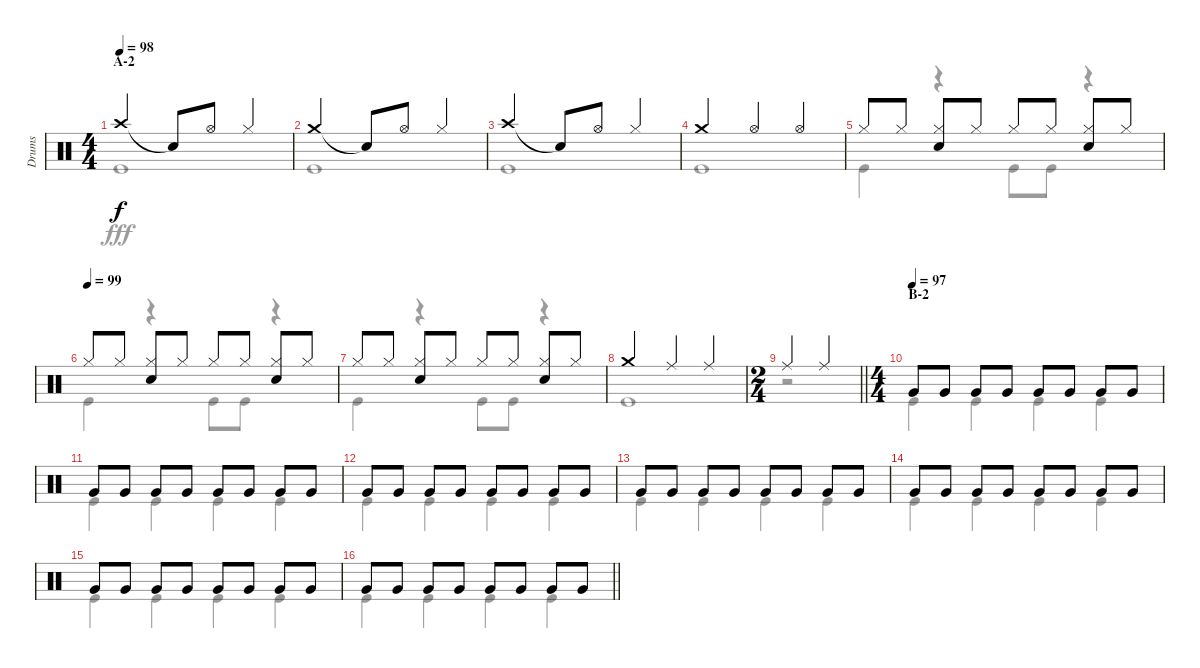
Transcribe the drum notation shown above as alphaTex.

\track ("Drums" "Drums") {instrument percussion}
\staff {score}
\articulation defaults
\voice
\ts (4 4)
\section ("" "A-2")
\tempo 98
\clef neutral
\ks c "Crash high (hit)".2{dy f} "Snare (hit)"{t}.8 "Hi-Hat (open)".8 "Hi-Hat (closed)".4
|
"Crash medium (hit)".2 "Snare (hit)"{t}.8 "Hi-Hat (open)".8 "Hi-Hat (closed)".4 |
"Crash high (hit)".2 "Snare (hit)"{t}.8 "Hi-Hat (open)".8 "Hi-Hat (closed)".4 |
"Crash medium (hit)".2 "Hi-Hat (open)".4 "Hi-Hat (open)".4 |
"Hi-Hat (closed)".8 "Hi-Hat (closed)".8 ("Hi-Hat (closed)" "Snare (hit) 2").8 "Hi-Hat (closed)".8 "Hi-Hat (closed)".8 "Hi-Hat (closed)".8 ("Hi-Hat (closed)" "Snare (hit) 2").8 "Hi-Hat (closed)".8 |
\tempo (99)
"Hi-Hat (closed)".8 "Hi-Hat (closed)".8 ("Hi-Hat (closed)" "Snare (hit) 2").8 "Hi-Hat (closed)".8 "Hi-Hat (closed)".8 "Hi-Hat (closed)".8 ("Hi-Hat (closed)" "Snare (hit) 2").8 "Hi-Hat (closed)".8 |
"Hi-Hat (closed)".8 "Hi-Hat (closed)".8 ("Hi-Hat (closed)" "Snare (hit) 2").8 "Hi-Hat (closed)".8 "Hi-Hat (closed)".8 "Hi-Hat (closed)".8 ("Hi-Hat (closed)" "Snare (hit) 2").8 "Hi-Hat (closed)".8 |
"Crash medium (hit)".2 "Ride (middle)".4 "Ride (middle)".4 |
\ts (2 4)
\barLineRight lightlight "Ride (middle)".4 "Ride (middle)".4
|
\ts (4 4)
\section ("" "B-2")
\tempo (97)
"Very Low Tom (hit)".8 "Very Low Tom (hit)".8 "Very Low Tom (hit)".8 "Very Low Tom (hit)".8 "Very Low Tom (hit)".8 "Very Low Tom (hit)".8 "Very Low Tom (hit)".8 "Very Low Tom (hit)".8 |
"Very Low Tom (hit)".8 "Very Low Tom (hit)".8 "Very Low Tom (hit)".8 "Very Low Tom (hit)".8 "Very Low Tom (hit)".8 "Very Low Tom (hit)".8 "Very Low Tom (hit)".8 "Very Low Tom (hit)".8 |
"Very Low Tom (hit)".8 "Very Low Tom (hit)".8 "Very Low Tom (hit)".8 "Very Low Tom (hit)".8 "Very Low Tom (hit)".8 "Very Low Tom (hit)".8 "Very Low Tom (hit)".8 "Very Low Tom (hit)".8 |
"Very Low Tom (hit)".8 "Very Low Tom (hit)".8 "Very Low Tom (hit)".8 "Very Low Tom (hit)".8 "Very Low Tom (hit)".8 "Very Low Tom (hit)".8 "Very Low Tom (hit)".8 "Very Low Tom (hit)".8 |
"Very Low Tom (hit)".8 "Very Low Tom (hit)".8 "Very Low Tom (hit)".8 "Very Low Tom (hit)".8 "Very Low Tom (hit)".8 "Very Low Tom (hit)".8 "Very Low Tom (hit)".8 "Very Low Tom (hit)".8 |
"Very Low Tom (hit)".8 "Very Low Tom (hit)".8 "Very Low Tom (hit)".8 "Very Low Tom (hit)".8 "Very Low Tom (hit)".8 "Very Low Tom (hit)".8 "Very Low Tom (hit)".8 "Very Low Tom (hit)".8 |
\barLineRight lightlight "Very Low Tom (hit)".8 "Very Low Tom (hit)".8 "Very Low Tom (hit)".8 "Very Low Tom (hit)".8 "Very Low Tom (hit)".8 "Very Low Tom (hit)".8 "Very Low Tom (hit)".8 "Very Low Tom (hit)".8
\voice
\clef neutral
\ottava regular
\simile none
\ks c "Kick (hit)".1{dy fff}
|
"Kick (hit)".1 |
"Kick (hit)".1 |
"Kick (hit)".1 |
"Kick (hit)".4 r.4 "Kick (hit)".8 "Kick (hit)".8 r.4 |
"Kick (hit)".4 r.4 "Kick (hit)".8 "Kick (hit)".8 r.4 |
"Kick (hit)".4 r.4 "Kick (hit)".8 "Kick (hit)".8 r.4 |
"Kick (hit)".1 |
\barLineRight lightlight
r.2 |
"Kick (hit)".4 "Kick (hit)".4 "Kick (hit)".4 "Kick (hit)".4 |
"Kick (hit)".4 "Kick (hit)".4 "Kick (hit)".4 "Kick (hit)".4 |
"Kick (hit)".4 "Kick (hit)".4 "Kick (hit)".4 "Kick (hit)".4 |
"Kick (hit)".4 "Kick (hit)".4 "Kick (hit)".4 "Kick (hit)".4 |
"Kick (hit)".4 "Kick (hit)".4 "Kick (hit)".4 "Kick (hit)".4 |
"Kick (hit)".4 "Kick (hit)".4 "Kick (hit)".4 "Kick (hit)".4 |
\barLineRight lightlight "Kick (hit)".4 "Kick (hit)".4 "Kick (hit)".4 "Kick (hit)".4
